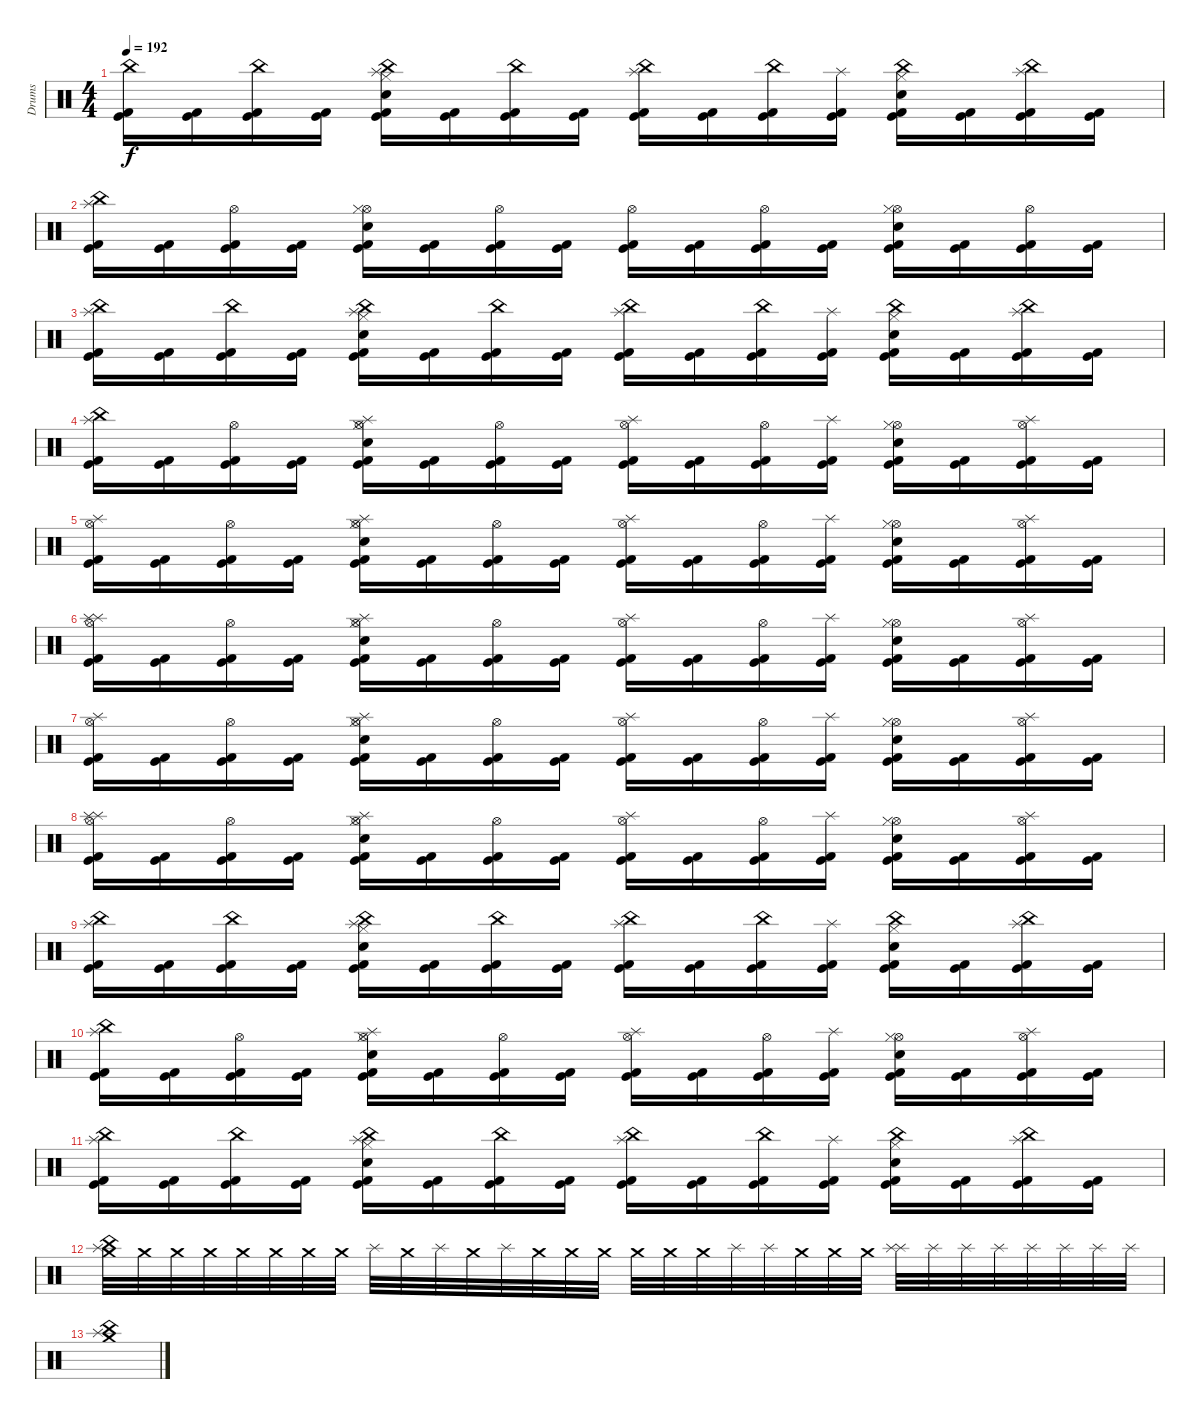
\track ("Drums" "Drums") {instrument percussion}
\staff {score}
\articulation defaults
\ts (4 4)
\tempo 192
\clef neutral
\ks c
("China (hit)" "Kick (hit)" "Kick (hit) 2").16{dy f} ("Kick (hit)" "Kick (hit) 2").16 ("China (hit)" "Kick (hit)" "Kick (hit) 2").16 ("Kick (hit)" "Kick (hit) 2").16 ("Splash (hit)" "Hi-Hat (closed)" "China (hit)" "Electric Snare (hit)" "Kick (hit)" "Kick (hit) 2").16 ("Kick (hit)" "Kick (hit) 2").16 ("China (hit)" "Kick (hit)" "Kick (hit) 2").16 ("Kick (hit)" "Kick (hit) 2").16 ("Splash (hit)" "China (hit)" "Kick (hit)" "Kick (hit) 2").16 ("Kick (hit)" "Kick (hit) 2").16 ("China (hit)" "Kick (hit)" "Kick (hit) 2").16 ("Splash (hit)" "Kick (hit)" "Kick (hit) 2").16 ("Hi-Hat (closed)" "China (hit)" "Electric Snare (hit)" "Kick (hit)" "Kick (hit) 2").16 ("Kick (hit)" "Kick (hit) 2").16 ("Splash (hit)" "China (hit)" "Kick (hit)" "Kick (hit) 2").16 ("Kick (hit)" "Kick (hit) 2").16 |
("Splash (hit)" "China (hit)" "Kick (hit)" "Kick (hit) 2").16 ("Kick (hit)" "Kick (hit) 2").16 ("Hi-Hat (open)" "Kick (hit)" "Kick (hit) 2").16 ("Kick (hit)" "Kick (hit) 2").16 ("Hi-Hat (open)" "Hi-Hat (closed)" "Electric Snare (hit)" "Kick (hit)" "Kick (hit) 2").16 ("Kick (hit)" "Kick (hit) 2").16 ("Hi-Hat (open)" "Kick (hit)" "Kick (hit) 2").16 ("Kick (hit)" "Kick (hit) 2").16 ("Hi-Hat (open)" "Kick (hit)" "Kick (hit) 2").16 ("Kick (hit)" "Kick (hit) 2").16 ("Hi-Hat (open)" "Kick (hit)" "Kick (hit) 2").16 ("Kick (hit)" "Kick (hit) 2").16 ("Hi-Hat (open)" "Hi-Hat (closed)" "Electric Snare (hit)" "Kick (hit)" "Kick (hit) 2").16 ("Kick (hit)" "Kick (hit) 2").16 ("Hi-Hat (open)" "Kick (hit)" "Kick (hit) 2").16 ("Kick (hit)" "Kick (hit) 2").16 |
("Splash (hit)" "China (hit)" "Kick (hit)" "Kick (hit) 2").16 ("Kick (hit)" "Kick (hit) 2").16 ("China (hit)" "Kick (hit)" "Kick (hit) 2").16 ("Kick (hit)" "Kick (hit) 2").16 ("Splash (hit)" "Hi-Hat (closed)" "China (hit)" "Electric Snare (hit)" "Kick (hit)" "Kick (hit) 2").16 ("Kick (hit)" "Kick (hit) 2").16 ("China (hit)" "Kick (hit)" "Kick (hit) 2").16 ("Kick (hit)" "Kick (hit) 2").16 ("Splash (hit)" "China (hit)" "Kick (hit)" "Kick (hit) 2").16 ("Kick (hit)" "Kick (hit) 2").16 ("China (hit)" "Kick (hit)" "Kick (hit) 2").16 ("Splash (hit)" "Kick (hit)" "Kick (hit) 2").16 ("Hi-Hat (closed)" "China (hit)" "Electric Snare (hit)" "Kick (hit)" "Kick (hit) 2").16 ("Kick (hit)" "Kick (hit) 2").16 ("Splash (hit)" "China (hit)" "Kick (hit)" "Kick (hit) 2").16 ("Kick (hit)" "Kick (hit) 2").16 |
("Splash (hit)" "China (hit)" "Kick (hit)" "Kick (hit) 2").16{volume 16 balance 8} ("Kick (hit)" "Kick (hit) 2").16 ("Hi-Hat (open)" "Kick (hit)" "Kick (hit) 2").16 ("Kick (hit)" "Kick (hit) 2").16 ("Splash (hit)" "Hi-Hat (open)" "Hi-Hat (closed)" "Electric Snare (hit)" "Kick (hit)" "Kick (hit) 2").16 ("Kick (hit)" "Kick (hit) 2").16 ("Hi-Hat (open)" "Kick (hit)" "Kick (hit) 2").16 ("Kick (hit)" "Kick (hit) 2").16 ("Splash (hit)" "Hi-Hat (open)" "Kick (hit)" "Kick (hit) 2").16 ("Kick (hit)" "Kick (hit) 2").16 ("Hi-Hat (open)" "Kick (hit)" "Kick (hit) 2").16 ("Splash (hit)" "Kick (hit)" "Kick (hit) 2").16 ("Hi-Hat (open)" "Hi-Hat (closed)" "Electric Snare (hit)" "Kick (hit)" "Kick (hit) 2").16 ("Kick (hit)" "Kick (hit) 2").16 ("Splash (hit)" "Hi-Hat (open)" "Kick (hit)" "Kick (hit) 2").16 ("Kick (hit)" "Kick (hit) 2").16 |
("Splash (hit)" "Hi-Hat (open)" "Kick (hit)" "Kick (hit) 2").16 ("Kick (hit)" "Kick (hit) 2").16 ("Hi-Hat (open)" "Kick (hit)" "Kick (hit) 2").16 ("Kick (hit)" "Kick (hit) 2").16 ("Splash (hit)" "Hi-Hat (open)" "Hi-Hat (closed)" "Electric Snare (hit)" "Kick (hit)" "Kick (hit) 2").16 ("Kick (hit)" "Kick (hit) 2").16 ("Hi-Hat (open)" "Kick (hit)" "Kick (hit) 2").16 ("Kick (hit)" "Kick (hit) 2").16 ("Splash (hit)" "Hi-Hat (open)" "Kick (hit)" "Kick (hit) 2").16 ("Kick (hit)" "Kick (hit) 2").16 ("Hi-Hat (open)" "Kick (hit)" "Kick (hit) 2").16 ("Splash (hit)" "Kick (hit)" "Kick (hit) 2").16 ("Hi-Hat (open)" "Hi-Hat (closed)" "Electric Snare (hit)" "Kick (hit)" "Kick (hit) 2").16 ("Kick (hit)" "Kick (hit) 2").16 ("Splash (hit)" "Hi-Hat (open)" "Kick (hit)" "Kick (hit) 2").16 ("Kick (hit)" "Kick (hit) 2").16 |
("Splash (hit)" "Splash (hit)" "Hi-Hat (open)" "Kick (hit)" "Kick (hit) 2").16 ("Kick (hit)" "Kick (hit) 2").16 ("Hi-Hat (open)" "Kick (hit)" "Kick (hit) 2").16 ("Kick (hit)" "Kick (hit) 2").16 ("Splash (hit)" "Hi-Hat (open)" "Hi-Hat (closed)" "Electric Snare (hit)" "Kick (hit)" "Kick (hit) 2").16 ("Kick (hit)" "Kick (hit) 2").16 ("Hi-Hat (open)" "Kick (hit)" "Kick (hit) 2").16 ("Kick (hit)" "Kick (hit) 2").16 ("Splash (hit)" "Hi-Hat (open)" "Kick (hit)" "Kick (hit) 2").16 ("Kick (hit)" "Kick (hit) 2").16 ("Hi-Hat (open)" "Kick (hit)" "Kick (hit) 2").16 ("Splash (hit)" "Kick (hit)" "Kick (hit) 2").16 ("Hi-Hat (open)" "Hi-Hat (closed)" "Electric Snare (hit)" "Kick (hit)" "Kick (hit) 2").16 ("Kick (hit)" "Kick (hit) 2").16 ("Splash (hit)" "Hi-Hat (open)" "Kick (hit)" "Kick (hit) 2").16 ("Kick (hit)" "Kick (hit) 2").16 |
("Splash (hit)" "Hi-Hat (open)" "Kick (hit)" "Kick (hit) 2").16 ("Kick (hit)" "Kick (hit) 2").16 ("Hi-Hat (open)" "Kick (hit)" "Kick (hit) 2").16 ("Kick (hit)" "Kick (hit) 2").16 ("Splash (hit)" "Hi-Hat (open)" "Hi-Hat (closed)" "Electric Snare (hit)" "Kick (hit)" "Kick (hit) 2").16 ("Kick (hit)" "Kick (hit) 2").16 ("Hi-Hat (open)" "Kick (hit)" "Kick (hit) 2").16 ("Kick (hit)" "Kick (hit) 2").16 ("Splash (hit)" "Hi-Hat (open)" "Kick (hit)" "Kick (hit) 2").16 ("Kick (hit)" "Kick (hit) 2").16 ("Hi-Hat (open)" "Kick (hit)" "Kick (hit) 2").16 ("Splash (hit)" "Kick (hit)" "Kick (hit) 2").16 ("Hi-Hat (open)" "Hi-Hat (closed)" "Electric Snare (hit)" "Kick (hit)" "Kick (hit) 2").16 ("Kick (hit)" "Kick (hit) 2").16 ("Splash (hit)" "Hi-Hat (open)" "Kick (hit)" "Kick (hit) 2").16 ("Kick (hit)" "Kick (hit) 2").16 |
("Splash (hit)" "Hi-Hat (open)" "Splash (hit)" "Kick (hit)" "Kick (hit) 2").16 ("Kick (hit)" "Kick (hit) 2").16 ("Hi-Hat (open)" "Kick (hit)" "Kick (hit) 2").16 ("Kick (hit)" "Kick (hit) 2").16 ("Splash (hit)" "Hi-Hat (open)" "Hi-Hat (closed)" "Electric Snare (hit)" "Kick (hit)" "Kick (hit) 2").16 ("Kick (hit)" "Kick (hit) 2").16 ("Hi-Hat (open)" "Kick (hit)" "Kick (hit) 2").16 ("Kick (hit)" "Kick (hit) 2").16 ("Splash (hit)" "Hi-Hat (open)" "Kick (hit)" "Kick (hit) 2").16 ("Kick (hit)" "Kick (hit) 2").16 ("Hi-Hat (open)" "Kick (hit)" "Kick (hit) 2").16 ("Splash (hit)" "Kick (hit)" "Kick (hit) 2").16 ("Hi-Hat (open)" "Hi-Hat (closed)" "Electric Snare (hit)" "Kick (hit)" "Kick (hit) 2").16 ("Kick (hit)" "Kick (hit) 2").16 ("Splash (hit)" "Hi-Hat (open)" "Kick (hit)" "Kick (hit) 2").16 ("Kick (hit)" "Kick (hit) 2").16 |
("Splash (hit)" "China (hit)" "Kick (hit)" "Kick (hit) 2").16 ("Kick (hit)" "Kick (hit) 2").16 ("China (hit)" "Kick (hit)" "Kick (hit) 2").16 ("Kick (hit)" "Kick (hit) 2").16 ("Splash (hit)" "Hi-Hat (closed)" "China (hit)" "Electric Snare (hit)" "Kick (hit)" "Kick (hit) 2").16 ("Kick (hit)" "Kick (hit) 2").16 ("China (hit)" "Kick (hit)" "Kick (hit) 2").16 ("Kick (hit)" "Kick (hit) 2").16 ("Splash (hit)" "China (hit)" "Kick (hit)" "Kick (hit) 2").16 ("Kick (hit)" "Kick (hit) 2").16 ("China (hit)" "Kick (hit)" "Kick (hit) 2").16 ("Splash (hit)" "Kick (hit)" "Kick (hit) 2").16 ("Hi-Hat (closed)" "China (hit)" "Electric Snare (hit)" "Kick (hit)" "Kick (hit) 2").16 ("Kick (hit)" "Kick (hit) 2").16 ("Splash (hit)" "China (hit)" "Kick (hit)" "Kick (hit) 2").16 ("Kick (hit)" "Kick (hit) 2").16 |
("Splash (hit)" "China (hit)" "Kick (hit)" "Kick (hit) 2").16 ("Kick (hit)" "Kick (hit) 2").16 ("Hi-Hat (open)" "Kick (hit)" "Kick (hit) 2").16 ("Kick (hit)" "Kick (hit) 2").16 ("Splash (hit)" "Hi-Hat (open)" "Hi-Hat (closed)" "Electric Snare (hit)" "Kick (hit)" "Kick (hit) 2").16 ("Kick (hit)" "Kick (hit) 2").16 ("Hi-Hat (open)" "Kick (hit)" "Kick (hit) 2").16 ("Kick (hit)" "Kick (hit) 2").16 ("Splash (hit)" "Hi-Hat (open)" "Kick (hit)" "Kick (hit) 2").16 ("Kick (hit)" "Kick (hit) 2").16 ("Hi-Hat (open)" "Kick (hit)" "Kick (hit) 2").16 ("Splash (hit)" "Kick (hit)" "Kick (hit) 2").16 ("Hi-Hat (open)" "Hi-Hat (closed)" "Electric Snare (hit)" "Kick (hit)" "Kick (hit) 2").16 ("Kick (hit)" "Kick (hit) 2").16 ("Splash (hit)" "Hi-Hat (open)" "Kick (hit)" "Kick (hit) 2").16 ("Kick (hit)" "Kick (hit) 2").16 |
("Splash (hit)" "China (hit)" "Kick (hit)" "Kick (hit) 2").16 ("Kick (hit)" "Kick (hit) 2").16 ("China (hit)" "Kick (hit)" "Kick (hit) 2").16 ("Kick (hit)" "Kick (hit) 2").16 ("Splash (hit)" "Hi-Hat (closed)" "China (hit)" "Electric Snare (hit)" "Kick (hit)" "Kick (hit) 2").16 ("Kick (hit)" "Kick (hit) 2").16 ("China (hit)" "Kick (hit)" "Kick (hit) 2").16 ("Kick (hit)" "Kick (hit) 2").16 ("Splash (hit)" "China (hit)" "Kick (hit)" "Kick (hit) 2").16 ("Kick (hit)" "Kick (hit) 2").16 ("China (hit)" "Kick (hit)" "Kick (hit) 2").16 ("Splash (hit)" "Kick (hit)" "Kick (hit) 2").16 ("Hi-Hat (closed)" "China (hit)" "Electric Snare (hit)" "Kick (hit)" "Kick (hit) 2").16 ("Kick (hit)" "Kick (hit) 2").16 ("Splash (hit)" "China (hit)" "Kick (hit)" "Kick (hit) 2").16 ("Kick (hit)" "Kick (hit) 2").16 |
("China (hit)" "Crash medium (hit)" "Splash (hit)").32 "Crash medium (hit)".32 "Crash medium (hit)".32 "Crash medium (hit)".32 "Crash medium (hit)".32 "Crash medium (hit)".32 "Crash medium (hit)".32 "Crash medium (hit)".32 "Splash (hit)".32 "Crash medium (hit)".32 "Splash (hit)".32 "Crash medium (hit)".32 "Splash (hit)".32 "Crash medium (hit)".32 "Crash medium (hit)".32 "Crash medium (hit)".32 "Crash medium (hit)".32 "Crash medium (hit)".32 "Crash medium (hit)".32 "Splash (hit)".32 "Splash (hit)".32 "Crash medium (hit)".32 "Crash medium (hit)".32 "Crash medium (hit)".32 ("Splash (hit)" "Splash (hit)").32 "Splash (hit)".32 "Splash (hit)".32 "Splash (hit)".32 "Splash (hit)".32 "Splash (hit)".32 "Splash (hit)".32 "Splash (hit)".32 |
("Crash medium (hit)" "China (hit)" "Splash (hit)").1
